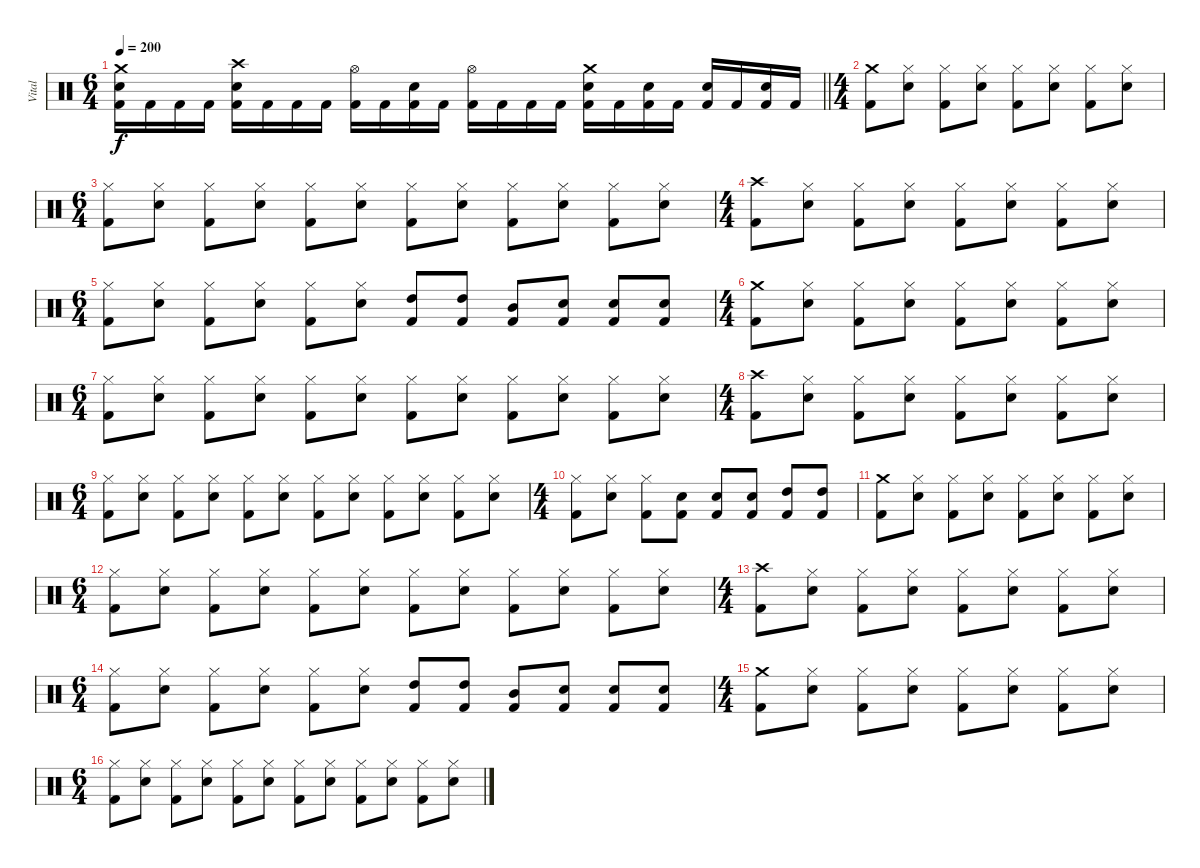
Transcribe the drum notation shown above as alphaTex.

\track ("Vital" "Vital") {instrument percussion}
\staff {score}
\articulation defaults
\ts (6 4)
\tempo 200
\clef neutral
\barLineRight lightlight
\ks c
("Crash medium (hit)" "Snare (hit) 2" "Kick (hit) 2").16{dy f} "Kick (hit) 2".16 "Kick (hit) 2".16 "Kick (hit) 2".16 ("Crash high (hit)" "Snare (hit) 2" "Kick (hit) 2").16 "Kick (hit) 2".16 "Kick (hit) 2".16 "Kick (hit) 2".16 ("Hi-Hat (open)" "Kick (hit) 2").16 "Kick (hit) 2".16 ("Snare (hit) 2" "Kick (hit) 2").16 "Kick (hit) 2".16 ("Hi-Hat (open)" "Kick (hit) 2").16 "Kick (hit) 2".16 "Kick (hit) 2".16 "Kick (hit) 2".16 ("Crash medium (hit)" "Snare (hit) 2" "Kick (hit) 2").16 "Kick (hit) 2".16 ("Snare (hit) 2" "Kick (hit) 2").16 "Kick (hit) 2".16 ("Snare (hit) 2" "Kick (hit) 2").16 "Kick (hit) 2".16 ("Snare (hit) 2" "Kick (hit) 2").16 "Kick (hit) 2".16 |
\ts (4 4)
("Crash medium (hit)" "Kick (hit) 2").8 ("Hi-Hat (closed)" "Snare (hit) 2").8 ("Hi-Hat (closed)" "Kick (hit) 2").8 ("Hi-Hat (closed)" "Snare (hit) 2").8 ("Hi-Hat (closed)" "Kick (hit) 2").8 ("Hi-Hat (closed)" "Snare (hit) 2").8 ("Hi-Hat (closed)" "Kick (hit) 2").8 ("Hi-Hat (closed)" "Snare (hit) 2").8 |
\ts (6 4)
("Hi-Hat (closed)" "Kick (hit) 2").8 ("Hi-Hat (closed)" "Snare (hit) 2").8 ("Hi-Hat (closed)" "Kick (hit) 2").8 ("Hi-Hat (closed)" "Snare (hit) 2").8 ("Hi-Hat (closed)" "Kick (hit) 2").8 ("Hi-Hat (closed)" "Snare (hit) 2").8 ("Hi-Hat (closed)" "Kick (hit) 2").8 ("Hi-Hat (closed)" "Snare (hit) 2").8 ("Hi-Hat (closed)" "Kick (hit) 2").8 ("Hi-Hat (closed)" "Snare (hit) 2").8 ("Hi-Hat (closed)" "Kick (hit) 2").8 ("Hi-Hat (closed)" "Snare (hit) 2").8 |
\ts (4 4)
("Crash high (hit)" "Kick (hit) 2").8 ("Hi-Hat (closed)" "Snare (hit) 2").8 ("Hi-Hat (closed)" "Kick (hit) 2").8 ("Hi-Hat (closed)" "Snare (hit) 2").8 ("Hi-Hat (closed)" "Kick (hit) 2").8 ("Hi-Hat (closed)" "Snare (hit) 2").8 ("Hi-Hat (closed)" "Kick (hit) 2").8 ("Hi-Hat (closed)" "Snare (hit) 2").8 |
\ts (6 4)
("Hi-Hat (closed)" "Kick (hit) 2").8 ("Hi-Hat (closed)" "Snare (hit) 2").8 ("Hi-Hat (closed)" "Kick (hit) 2").8 ("Hi-Hat (closed)" "Snare (hit) 2").8 ("Hi-Hat (closed)" "Kick (hit) 2").8 ("Hi-Hat (closed)" "Snare (hit) 2").8 ("High Tom (hit)" "Kick (hit) 2").8 ("High Tom (hit)" "Kick (hit) 2").8 ("Mid Tom (hit)" "Kick (hit) 2").8 ("Snare (hit) 2" "Kick (hit) 2").8 ("Snare (hit) 2" "Kick (hit) 2").8 ("Snare (hit) 2" "Kick (hit) 2").8 |
\ts (4 4)
("Crash medium (hit)" "Kick (hit) 2").8 ("Hi-Hat (closed)" "Snare (hit) 2").8 ("Hi-Hat (closed)" "Kick (hit) 2").8 ("Hi-Hat (closed)" "Snare (hit) 2").8 ("Hi-Hat (closed)" "Kick (hit) 2").8 ("Hi-Hat (closed)" "Snare (hit) 2").8 ("Hi-Hat (closed)" "Kick (hit) 2").8 ("Hi-Hat (closed)" "Snare (hit) 2").8 |
\ts (6 4)
("Hi-Hat (closed)" "Kick (hit) 2").8 ("Hi-Hat (closed)" "Snare (hit) 2").8 ("Hi-Hat (closed)" "Kick (hit) 2").8 ("Hi-Hat (closed)" "Snare (hit) 2").8 ("Hi-Hat (closed)" "Kick (hit) 2").8 ("Hi-Hat (closed)" "Snare (hit) 2").8 ("Hi-Hat (closed)" "Kick (hit) 2").8 ("Hi-Hat (closed)" "Snare (hit) 2").8 ("Hi-Hat (closed)" "Kick (hit) 2").8 ("Hi-Hat (closed)" "Snare (hit) 2").8 ("Hi-Hat (closed)" "Kick (hit) 2").8 ("Hi-Hat (closed)" "Snare (hit) 2").8 |
\ts (4 4)
("Crash high (hit)" "Kick (hit) 2").8 ("Hi-Hat (closed)" "Snare (hit) 2").8 ("Hi-Hat (closed)" "Kick (hit) 2").8 ("Hi-Hat (closed)" "Snare (hit) 2").8 ("Hi-Hat (closed)" "Kick (hit) 2").8 ("Hi-Hat (closed)" "Snare (hit) 2").8 ("Hi-Hat (closed)" "Kick (hit) 2").8 ("Hi-Hat (closed)" "Snare (hit) 2").8 |
\ts (6 4)
("Hi-Hat (closed)" "Kick (hit) 2").8 ("Hi-Hat (closed)" "Snare (hit) 2").8 ("Hi-Hat (closed)" "Kick (hit) 2").8 ("Hi-Hat (closed)" "Snare (hit) 2").8 ("Hi-Hat (closed)" "Kick (hit) 2").8 ("Hi-Hat (closed)" "Snare (hit) 2").8 ("Hi-Hat (closed)" "Kick (hit) 2").8 ("Hi-Hat (closed)" "Snare (hit) 2").8 ("Hi-Hat (closed)" "Kick (hit) 2").8 ("Hi-Hat (closed)" "Snare (hit) 2").8 ("Hi-Hat (closed)" "Kick (hit) 2").8 ("Hi-Hat (closed)" "Snare (hit) 2").8 |
\ts (4 4)
("Hi-Hat (closed)" "Kick (hit) 2").8 ("Hi-Hat (closed)" "Snare (hit) 2").8 ("Hi-Hat (closed)" "Kick (hit) 2").8 ("Snare (hit) 2" "Kick (hit) 2").8 ("Snare (hit) 2" "Kick (hit) 2").8 ("Snare (hit) 2" "Kick (hit) 2").8 ("High Tom (hit)" "Kick (hit) 2").8 ("High Tom (hit)" "Kick (hit) 2").8 |
("Crash medium (hit)" "Kick (hit) 2").8 ("Hi-Hat (closed)" "Snare (hit) 2").8 ("Hi-Hat (closed)" "Kick (hit) 2").8 ("Hi-Hat (closed)" "Snare (hit) 2").8 ("Hi-Hat (closed)" "Kick (hit) 2").8 ("Hi-Hat (closed)" "Snare (hit) 2").8 ("Hi-Hat (closed)" "Kick (hit) 2").8 ("Hi-Hat (closed)" "Snare (hit) 2").8 |
\ts (6 4)
("Hi-Hat (closed)" "Kick (hit) 2").8 ("Hi-Hat (closed)" "Snare (hit) 2").8 ("Hi-Hat (closed)" "Kick (hit) 2").8 ("Hi-Hat (closed)" "Snare (hit) 2").8 ("Hi-Hat (closed)" "Kick (hit) 2").8 ("Hi-Hat (closed)" "Snare (hit) 2").8 ("Hi-Hat (closed)" "Kick (hit) 2").8 ("Hi-Hat (closed)" "Snare (hit) 2").8 ("Hi-Hat (closed)" "Kick (hit) 2").8 ("Hi-Hat (closed)" "Snare (hit) 2").8 ("Hi-Hat (closed)" "Kick (hit) 2").8 ("Hi-Hat (closed)" "Snare (hit) 2").8 |
\ts (4 4)
("Crash high (hit)" "Kick (hit) 2").8 ("Hi-Hat (closed)" "Snare (hit) 2").8 ("Hi-Hat (closed)" "Kick (hit) 2").8 ("Hi-Hat (closed)" "Snare (hit) 2").8 ("Hi-Hat (closed)" "Kick (hit) 2").8 ("Hi-Hat (closed)" "Snare (hit) 2").8 ("Hi-Hat (closed)" "Kick (hit) 2").8 ("Hi-Hat (closed)" "Snare (hit) 2").8 |
\ts (6 4)
("Hi-Hat (closed)" "Kick (hit) 2").8 ("Hi-Hat (closed)" "Snare (hit) 2").8 ("Hi-Hat (closed)" "Kick (hit) 2").8 ("Hi-Hat (closed)" "Snare (hit) 2").8 ("Hi-Hat (closed)" "Kick (hit) 2").8 ("Hi-Hat (closed)" "Snare (hit) 2").8 ("High Tom (hit)" "Kick (hit) 2").8 ("High Tom (hit)" "Kick (hit) 2").8 ("Mid Tom (hit)" "Kick (hit) 2").8 ("Snare (hit) 2" "Kick (hit) 2").8 ("Snare (hit) 2" "Kick (hit) 2").8 ("Snare (hit) 2" "Kick (hit) 2").8 |
\ts (4 4)
("Crash medium (hit)" "Kick (hit) 2").8 ("Hi-Hat (closed)" "Snare (hit) 2").8 ("Hi-Hat (closed)" "Kick (hit) 2").8 ("Hi-Hat (closed)" "Snare (hit) 2").8 ("Hi-Hat (closed)" "Kick (hit) 2").8 ("Hi-Hat (closed)" "Snare (hit) 2").8 ("Hi-Hat (closed)" "Kick (hit) 2").8 ("Hi-Hat (closed)" "Snare (hit) 2").8 |
\ts (6 4)
("Hi-Hat (closed)" "Kick (hit) 2").8 ("Hi-Hat (closed)" "Snare (hit) 2").8 ("Hi-Hat (closed)" "Kick (hit) 2").8 ("Hi-Hat (closed)" "Snare (hit) 2").8 ("Hi-Hat (closed)" "Kick (hit) 2").8 ("Hi-Hat (closed)" "Snare (hit) 2").8 ("Hi-Hat (closed)" "Kick (hit) 2").8 ("Hi-Hat (closed)" "Snare (hit) 2").8 ("Hi-Hat (closed)" "Kick (hit) 2").8 ("Hi-Hat (closed)" "Snare (hit) 2").8 ("Hi-Hat (closed)" "Kick (hit) 2").8 ("Hi-Hat (closed)" "Snare (hit) 2").8
